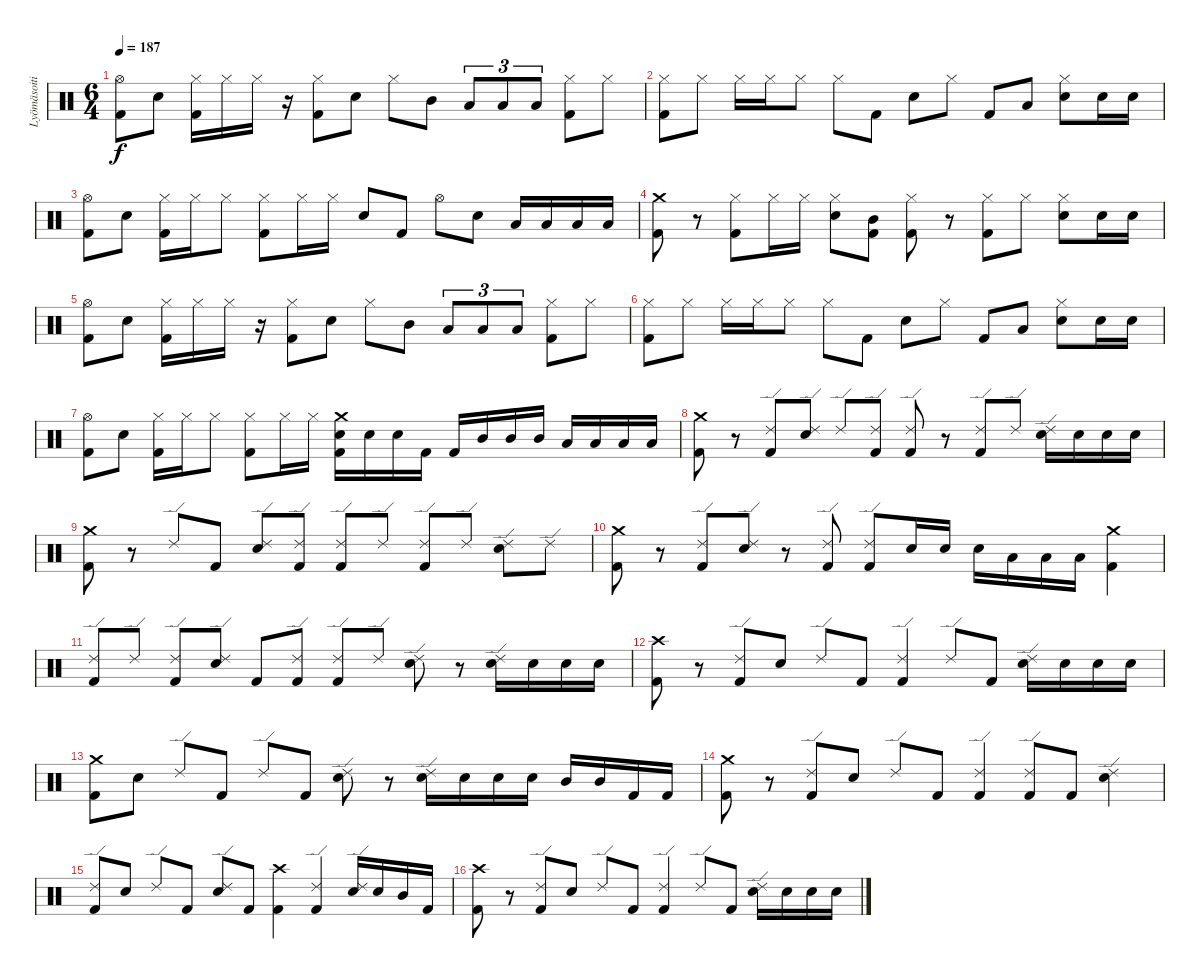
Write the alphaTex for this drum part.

\track ("Lyömäsoitin" "Lyömäsoiti") {instrument percussion}
\staff {score}
\articulation defaults
\ts (6 4)
\tempo 187
\clef neutral
\ks c
("Kick (hit) 2" "Hi-Hat (open)").8{dy f} "Snare (hit) 2".8 ("Kick (hit) 2" "Hi-Hat (closed)").16 "Hi-Hat (closed)".16 "Hi-Hat (closed)".16 r.16 ("Kick (hit) 2" "Hi-Hat (closed)").8 "Snare (hit) 2".8 "Hi-Hat (closed)".8 "Mid Tom (hit)".8 "Low Tom (hit)".8{tu (3 2)} "Low Tom (hit)".8{tu (3 2)} "Low Tom (hit)".8{tu (3 2)} ("Hi-Hat (closed)" "Kick (hit) 2").8 "Hi-Hat (closed)".8 |
("Kick (hit) 2" "Hi-Hat (closed)").8 "Hi-Hat (closed)".8 "Hi-Hat (closed)".16 "Hi-Hat (closed)".16 "Hi-Hat (closed)".8 "Hi-Hat (closed)".8 "Kick (hit) 2".8 "Snare (hit) 2".8 "Hi-Hat (closed)".8 "Kick (hit) 2".8 "Low Tom (hit)".8 ("Snare (hit) 2" "Hi-Hat (closed)").8 "Snare (hit) 2".16 "Snare (hit) 2".16 |
("Hi-Hat (open)" "Kick (hit) 2").8 "Snare (hit) 2".8 ("Hi-Hat (closed)" "Kick (hit) 2").16 "Hi-Hat (closed)".16 "Hi-Hat (closed)".8 ("Kick (hit) 2" "Hi-Hat (closed)").8 "Hi-Hat (closed)".16 "Hi-Hat (closed)".16 "Snare (hit) 2".8 "Kick (hit) 2".8 "Hi-Hat (open)".8 "Snare (hit) 2".8 "Low Tom (hit)".16 "Low Tom (hit)".16 "Low Tom (hit)".16 "Low Tom (hit)".16 |
("Kick (hit) 2" "Crash medium (hit)").8 r.8 ("Kick (hit) 2" "Hi-Hat (closed)").8 "Hi-Hat (closed)".16 "Hi-Hat (closed)".16 ("Hi-Hat (closed)" "Snare (hit) 2").8 ("Kick (hit) 2" "Mid Tom (hit)").8 ("Kick (hit) 2" "Hi-Hat (closed)").8 r.8 ("Hi-Hat (closed)" "Kick (hit) 2").8 "Hi-Hat (closed)".8 ("Snare (hit) 2" "Hi-Hat (closed)").8 "Snare (hit) 2".16 "Snare (hit) 2".16 |
("Kick (hit) 2" "Hi-Hat (open)").8 "Snare (hit) 2".8 ("Kick (hit) 2" "Hi-Hat (closed)").16 "Hi-Hat (closed)".16 "Hi-Hat (closed)".16 r.16 ("Kick (hit) 2" "Hi-Hat (closed)").8 "Snare (hit) 2".8 "Hi-Hat (closed)".8 "Mid Tom (hit)".8 "Low Tom (hit)".8{tu (3 2)} "Low Tom (hit)".8{tu (3 2)} "Low Tom (hit)".8{tu (3 2)} ("Hi-Hat (closed)" "Kick (hit) 2").8 "Hi-Hat (closed)".8 |
("Kick (hit) 2" "Hi-Hat (closed)").8 "Hi-Hat (closed)".8 "Hi-Hat (closed)".16 "Hi-Hat (closed)".16 "Hi-Hat (closed)".8 "Hi-Hat (closed)".8 "Kick (hit) 2".8 "Snare (hit) 2".8 "Hi-Hat (closed)".8 "Kick (hit) 2".8 "Low Tom (hit)".8 ("Snare (hit) 2" "Hi-Hat (closed)").8 "Snare (hit) 2".16 "Snare (hit) 2".16 |
("Hi-Hat (open)" "Kick (hit) 2").8 "Snare (hit) 2".8 ("Hi-Hat (closed)" "Kick (hit) 2").16 "Hi-Hat (closed)".16 "Hi-Hat (closed)".8 ("Kick (hit) 2" "Hi-Hat (closed)").8 "Hi-Hat (closed)".16 "Hi-Hat (closed)".16 ("Snare (hit) 2" "Crash medium (hit)" "Kick (hit) 2").16 "Snare (hit) 2".16 "Snare (hit) 2".16 "Kick (hit) 2".16 "Kick (hit) 2".16 "Mid Tom (hit)".16 "Mid Tom (hit)".16 "Mid Tom (hit)".16 "Low Tom (hit)".16 "Low Tom (hit)".16 "Low Tom (hit)".16 "Low Tom (hit)".16 |
("Kick (hit) 2" "Crash medium (hit)").8 r.8 ("Kick (hit) 2" "Ride (edge) 2").8 ("Snare (hit) 2" "Ride (edge) 2").8 "Ride (edge) 2".8 ("Ride (edge) 2" "Kick (hit) 2").8 ("Ride (edge) 2" "Kick (hit) 2").8 r.8 ("Ride (edge) 2" "Kick (hit) 2").8 "Ride (edge) 2".8 ("Ride (edge) 2" "Snare (hit) 2").16 "Snare (hit) 2".16 "Snare (hit) 2".16 "Snare (hit) 2".16 |
("Kick (hit) 2" "Crash medium (hit)").8 r.8 "Ride (edge) 2".8 "Kick (hit) 2".8 ("Ride (edge) 2" "Snare (hit) 2").8 ("Ride (edge) 2" "Kick (hit) 2").8 ("Ride (edge) 2" "Kick (hit) 2").8 "Ride (edge) 2".8 ("Ride (edge) 2" "Kick (hit) 2").8 "Ride (edge) 2".8 ("Ride (edge) 2" "Snare (hit) 2").8 "Ride (edge) 2".8 |
("Kick (hit) 2" "Crash medium (hit)").8 r.8 ("Kick (hit) 2" "Ride (edge) 2").8 ("Snare (hit) 2" "Ride (edge) 2").8 r.8 ("Ride (edge) 2" "Kick (hit) 2").8 ("Ride (edge) 2" "Kick (hit) 2").8 "Snare (hit) 2".16 "Snare (hit) 2".16 "Snare (hit) 2".16 "Low Tom (hit)".16 "Low Tom (hit)".16 "Low Tom (hit)".16 ("Kick (hit) 2" "Crash medium (hit)").4 |
("Kick (hit) 2" "Ride (edge) 2").8 "Ride (edge) 2".8 ("Kick (hit) 2" "Ride (edge) 2").8 ("Ride (edge) 2" "Snare (hit) 2").8 "Kick (hit) 2".8 ("Kick (hit) 2" "Ride (edge) 2").8 ("Ride (edge) 2" "Kick (hit) 2").8 "Ride (edge) 2".8 ("Ride (edge) 2" "Snare (hit) 2").8 r.8 ("Ride (edge) 2" "Snare (hit) 2").16 "Snare (hit) 2".16 "Snare (hit) 2".16 "Snare (hit) 2".16 |
("Kick (hit) 2" "Crash high (hit)").8 r.8 ("Ride (edge) 2" "Kick (hit) 2").8 "Snare (hit) 2".8 "Ride (edge) 2".8 "Kick (hit) 2".8 ("Ride (edge) 2" "Kick (hit) 2").4 "Ride (edge) 2".8 "Kick (hit) 2".8 ("Ride (edge) 2" "Snare (hit) 2").16 "Snare (hit) 2".16 "Snare (hit) 2".16 "Snare (hit) 2".16 |
("Kick (hit) 2" "Crash medium (hit)").8 "Snare (hit) 2".8 "Ride (edge) 2".8 "Kick (hit) 2".8 "Ride (edge) 2".8 "Kick (hit) 2".8 ("Ride (edge) 2" "Snare (hit) 2").8 r.8 ("Ride (edge) 2" "Snare (hit) 2").16 "Snare (hit) 2".16 "Snare (hit) 2".16 "Snare (hit) 2".16 "Mid Tom (hit)".16 "Mid Tom (hit)".16 "Kick (hit) 2".16 "Kick (hit) 2".16 |
("Kick (hit) 2" "Crash medium (hit)").8 r.8 ("Kick (hit) 2" "Ride (edge) 2").8 "Snare (hit) 2".8 "Ride (edge) 2".8 "Kick (hit) 2".8 ("Ride (edge) 2" "Kick (hit) 2").4 ("Ride (edge) 2" "Kick (hit) 2").8 "Kick (hit) 2".8 ("Ride (edge) 2" "Snare (hit) 2").4 |
("Ride (edge) 2" "Kick (hit) 2").8 "Snare (hit) 2".8 "Ride (edge) 2".8 "Kick (hit) 2".8 ("Ride (edge) 2" "Snare (hit) 2").8 "Kick (hit) 2".8 ("Crash high (hit)" "Kick (hit) 2").4 ("Ride (edge) 2" "Kick (hit) 2").4 ("Snare (hit) 2" "Ride (edge) 2").16 "Snare (hit) 2".16 "Mid Tom (hit)".16 "Kick (hit) 2".16 |
("Kick (hit) 2" "Crash high (hit)").8 r.8 ("Ride (edge) 2" "Kick (hit) 2").8 "Snare (hit) 2".8 "Ride (edge) 2".8 "Kick (hit) 2".8 ("Ride (edge) 2" "Kick (hit) 2").4 "Ride (edge) 2".8 "Kick (hit) 2".8 ("Ride (edge) 2" "Snare (hit) 2").16 "Snare (hit) 2".16 "Snare (hit) 2".16 "Snare (hit) 2".16
